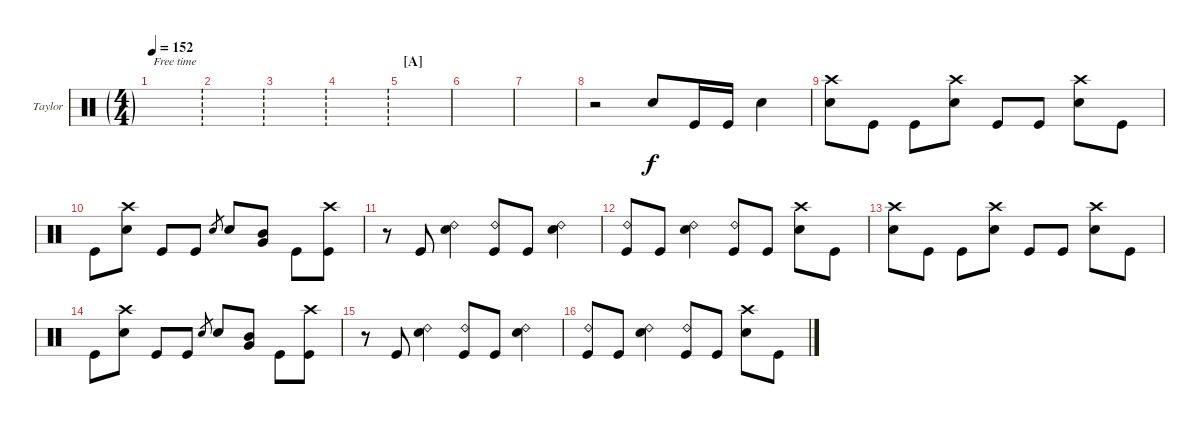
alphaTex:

\defaultSystemsLayout 4
\bracketExtendMode nobrackets
\firstSystemTrackNameOrientation horizontal
\otherSystemsTrackNameOrientation horizontal
\track ("Drums (Taylor Hawkins)" "Taylor") {instrument percussion}
\staff {score}
\articulation defaults
\ts (4 4)
\ft
\tempo 152
\clef neutral
\ks c
|
\ft
|
\ft
|
\ft
|
\section ("A" "")
|
|
|
r.2 "Snare (hit) 2".8 "Kick (hit)".16 "Kick (hit)".16 "Snare (hit) 2".4 |
("Crash high (hit)" "Snare (hit) 2").8 "Kick (hit)".8 "Kick (hit)".8 ("Crash high (hit)" "Snare (hit) 2").8 "Kick (hit)".8 "Kick (hit)".8 ("Crash high (hit)" "Snare (hit) 2").8 "Kick (hit)".8 |
"Kick (hit)".8 ("Crash high (hit)" "Snare (hit) 2").8 "Kick (hit)".8 "Kick (hit)".8 "Snare (hit) 2".8{gr} "Snare (hit) 2".8 ("Mid Tom (hit)" "Very Low Tom (hit)").8 "Kick (hit)".8 ("Crash high (hit)" "Kick (hit)").8 |
r.8 "Kick (hit)".8 ("Snare (hit) 2" "Ride (bell) 2").4 ("Ride (bell) 2" "Kick (hit)").8 "Kick (hit)".8 ("Ride (bell) 2" "Snare (hit) 2").4 |
("Kick (hit)" "Ride (bell) 2").8 "Kick (hit)".8 ("Snare (hit) 2" "Ride (bell) 2").4 ("Ride (bell) 2" "Kick (hit)").8 "Kick (hit)".8 ("Snare (hit) 2" "Crash high (hit)").8 "Kick (hit)".8 |
("Crash high (hit)" "Snare (hit) 2").8 "Kick (hit)".8 "Kick (hit)".8 ("Crash high (hit)" "Snare (hit) 2").8 "Kick (hit)".8 "Kick (hit)".8 ("Crash high (hit)" "Snare (hit) 2").8 "Kick (hit)".8 |
"Kick (hit)".8 ("Crash high (hit)" "Snare (hit) 2").8 "Kick (hit)".8 "Kick (hit)".8 "Snare (hit) 2".8{gr} "Snare (hit) 2".8 ("Mid Tom (hit)" "Very Low Tom (hit)").8 "Kick (hit)".8 ("Crash high (hit)" "Kick (hit)").8 |
r.8 "Kick (hit)".8 ("Snare (hit) 2" "Ride (bell) 2").4 ("Ride (bell) 2" "Kick (hit)").8 "Kick (hit)".8 ("Ride (bell) 2" "Snare (hit) 2").4 |
("Kick (hit)" "Ride (bell) 2").8 "Kick (hit)".8 ("Snare (hit) 2" "Ride (bell) 2").4 ("Ride (bell) 2" "Kick (hit)").8 "Kick (hit)".8 ("Snare (hit) 2" "Crash high (hit)").8 "Kick (hit)".8
